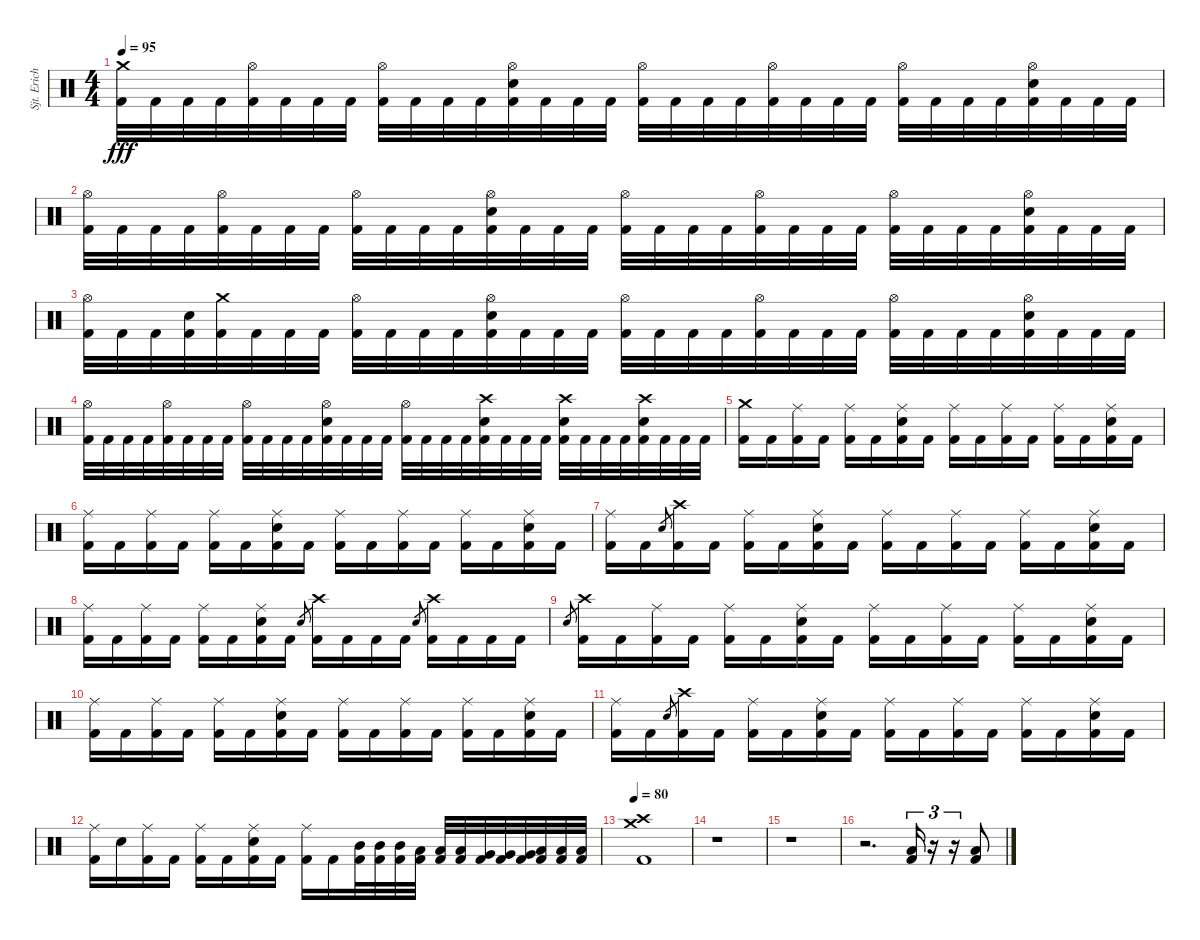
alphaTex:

\track ("Sjt. Erichsen" "Sjt. Erich") {instrument percussion}
\staff {score}
\articulation defaults
\ts (4 4)
\tempo 95
\clef neutral
\ks c
("Crash medium (hit)" "Kick (hit) 2").32{dy fff} "Kick (hit) 2".32 "Kick (hit) 2".32 "Kick (hit) 2".32 ("Hi-Hat (open)" "Kick (hit) 2").32 "Kick (hit) 2".32 "Kick (hit) 2".32 "Kick (hit) 2".32 ("Hi-Hat (open)" "Kick (hit) 2").32 "Kick (hit) 2".32 "Kick (hit) 2".32 "Kick (hit) 2".32 ("Hi-Hat (open)" "Electric Snare (hit)" "Kick (hit) 2").32 "Kick (hit) 2".32 "Kick (hit) 2".32 "Kick (hit) 2".32 ("Hi-Hat (open)" "Kick (hit) 2").32 "Kick (hit) 2".32 "Kick (hit) 2".32 "Kick (hit) 2".32 ("Hi-Hat (open)" "Kick (hit) 2").32 "Kick (hit) 2".32 "Kick (hit) 2".32 "Kick (hit) 2".32 ("Hi-Hat (open)" "Kick (hit) 2").32 "Kick (hit) 2".32 "Kick (hit) 2".32 "Kick (hit) 2".32 ("Hi-Hat (open)" "Electric Snare (hit)" "Kick (hit) 2").32 "Kick (hit) 2".32 "Kick (hit) 2".32 "Kick (hit) 2".32 |
("Hi-Hat (open)" "Kick (hit) 2").32 "Kick (hit) 2".32 "Kick (hit) 2".32 "Kick (hit) 2".32 ("Hi-Hat (open)" "Kick (hit) 2").32 "Kick (hit) 2".32 "Kick (hit) 2".32 "Kick (hit) 2".32 ("Hi-Hat (open)" "Kick (hit) 2").32 "Kick (hit) 2".32 "Kick (hit) 2".32 "Kick (hit) 2".32 ("Hi-Hat (open)" "Electric Snare (hit)" "Kick (hit) 2").32 "Kick (hit) 2".32 "Kick (hit) 2".32 "Kick (hit) 2".32 ("Hi-Hat (open)" "Kick (hit) 2").32 "Kick (hit) 2".32 "Kick (hit) 2".32 "Kick (hit) 2".32 ("Hi-Hat (open)" "Kick (hit) 2").32 "Kick (hit) 2".32 "Kick (hit) 2".32 "Kick (hit) 2".32 ("Hi-Hat (open)" "Kick (hit) 2").32 "Kick (hit) 2".32 "Kick (hit) 2".32 "Kick (hit) 2".32 ("Hi-Hat (open)" "Electric Snare (hit)" "Kick (hit) 2").32 "Kick (hit) 2".32 "Kick (hit) 2".32 "Kick (hit) 2".32 |
("Hi-Hat (open)" "Kick (hit) 2").32 "Kick (hit) 2".32 "Kick (hit) 2".32 ("Electric Snare (hit)" "Kick (hit) 2").32 ("Crash medium (hit)" "Kick (hit) 2").32 "Kick (hit) 2".32 "Kick (hit) 2".32 "Kick (hit) 2".32 ("Hi-Hat (open)" "Kick (hit) 2").32 "Kick (hit) 2".32 "Kick (hit) 2".32 "Kick (hit) 2".32 ("Hi-Hat (open)" "Electric Snare (hit)" "Kick (hit) 2").32 "Kick (hit) 2".32 "Kick (hit) 2".32 "Kick (hit) 2".32 ("Hi-Hat (open)" "Kick (hit) 2").32 "Kick (hit) 2".32 "Kick (hit) 2".32 "Kick (hit) 2".32 ("Hi-Hat (open)" "Kick (hit) 2").32 "Kick (hit) 2".32 "Kick (hit) 2".32 "Kick (hit) 2".32 ("Hi-Hat (open)" "Kick (hit) 2").32 "Kick (hit) 2".32 "Kick (hit) 2".32 "Kick (hit) 2".32 ("Hi-Hat (open)" "Electric Snare (hit)" "Kick (hit) 2").32 "Kick (hit) 2".32 "Kick (hit) 2".32 "Kick (hit) 2".32 |
("Hi-Hat (open)" "Kick (hit) 2").32 "Kick (hit) 2".32 "Kick (hit) 2".32 "Kick (hit) 2".32 ("Hi-Hat (open)" "Kick (hit) 2").32 "Kick (hit) 2".32 "Kick (hit) 2".32 "Kick (hit) 2".32 ("Hi-Hat (open)" "Kick (hit) 2").32 "Kick (hit) 2".32 "Kick (hit) 2".32 "Kick (hit) 2".32 ("Hi-Hat (open)" "Electric Snare (hit)" "Kick (hit) 2").32 "Kick (hit) 2".32 "Kick (hit) 2".32 "Kick (hit) 2".32 ("Hi-Hat (open)" "Kick (hit) 2").32 "Kick (hit) 2".32 "Kick (hit) 2".32 "Kick (hit) 2".32 ("Crash high (hit)" "Electric Snare (hit)" "Kick (hit) 2").32 "Kick (hit) 2".32 "Kick (hit) 2".32 "Kick (hit) 2".32 ("Crash high (hit)" "Electric Snare (hit)" "Kick (hit) 2").32 "Kick (hit) 2".32 "Kick (hit) 2".32 "Kick (hit) 2".32 ("Crash high (hit)" "Electric Snare (hit)" "Kick (hit) 2").32 "Kick (hit) 2".32 "Kick (hit) 2".32 "Kick (hit) 2".32 |
("Crash medium (hit)" "Kick (hit) 2").16 "Kick (hit) 2".16 ("Ride (middle)" "Kick (hit) 2").16 "Kick (hit) 2".16 ("Ride (middle)" "Kick (hit) 2").16 "Kick (hit) 2".16 ("Ride (middle)" "Electric Snare (hit)" "Kick (hit) 2").16 "Kick (hit) 2".16 ("Ride (middle)" "Kick (hit) 2").16 "Kick (hit) 2".16 ("Ride (middle)" "Kick (hit) 2").16 "Kick (hit) 2".16 ("Ride (middle)" "Kick (hit) 2").16 "Kick (hit) 2".16 ("Ride (middle)" "Electric Snare (hit)" "Kick (hit) 2").16 "Kick (hit) 2".16 |
("Ride (middle)" "Kick (hit) 2").16 "Kick (hit) 2".16 ("Ride (middle)" "Kick (hit) 2").16 "Kick (hit) 2".16 ("Ride (middle)" "Kick (hit) 2").16 "Kick (hit) 2".16 ("Ride (middle)" "Electric Snare (hit)" "Kick (hit) 2").16 "Kick (hit) 2".16 ("Ride (middle)" "Kick (hit) 2").16 "Kick (hit) 2".16 ("Ride (middle)" "Kick (hit) 2").16 "Kick (hit) 2".16 ("Ride (middle)" "Kick (hit) 2").16 "Kick (hit) 2".16 ("Ride (middle)" "Electric Snare (hit)" "Kick (hit) 2").16 "Kick (hit) 2".16 |
("Ride (middle)" "Kick (hit) 2").16 "Kick (hit) 2".16 "Electric Snare (hit)".8{gr} ("Crash high (hit)" "Kick (hit) 2").16 "Kick (hit) 2".16 ("Ride (middle)" "Kick (hit) 2").16 "Kick (hit) 2".16 ("Ride (middle)" "Electric Snare (hit)" "Kick (hit) 2").16 "Kick (hit) 2".16 ("Ride (middle)" "Kick (hit) 2").16 "Kick (hit) 2".16 ("Ride (middle)" "Kick (hit) 2").16 "Kick (hit) 2".16 ("Ride (middle)" "Kick (hit) 2").16 "Kick (hit) 2".16 ("Ride (middle)" "Electric Snare (hit)" "Kick (hit) 2").16 "Kick (hit) 2".16 |
("Ride (middle)" "Kick (hit) 2").16 "Kick (hit) 2".16 ("Ride (middle)" "Kick (hit) 2").16 "Kick (hit) 2".16 ("Ride (middle)" "Kick (hit) 2").16 "Kick (hit) 2".16 ("Ride (middle)" "Electric Snare (hit)" "Kick (hit) 2").16 "Kick (hit) 2".16 "Electric Snare (hit)".8{gr} ("Crash high (hit)" "Kick (hit) 2").16 "Kick (hit) 2".16 "Kick (hit) 2".16 "Kick (hit) 2".16 "Electric Snare (hit)".8{gr} ("Crash high (hit)" "Kick (hit) 2").16 "Kick (hit) 2".16 "Kick (hit) 2".16 "Kick (hit) 2".16 |
"Electric Snare (hit)".8{gr} ("Crash high (hit)" "Kick (hit) 2").16 "Kick (hit) 2".16 ("Ride (middle)" "Kick (hit) 2").16 "Kick (hit) 2".16 ("Ride (middle)" "Kick (hit) 2").16 "Kick (hit) 2".16 ("Ride (middle)" "Electric Snare (hit)" "Kick (hit) 2").16 "Kick (hit) 2".16 ("Ride (middle)" "Kick (hit) 2").16 "Kick (hit) 2".16 ("Ride (middle)" "Kick (hit) 2").16 "Kick (hit) 2".16 ("Ride (middle)" "Kick (hit) 2").16 "Kick (hit) 2".16 ("Ride (middle)" "Electric Snare (hit)" "Kick (hit) 2").16 "Kick (hit) 2".16 |
("Ride (middle)" "Kick (hit) 2").16 "Kick (hit) 2".16 ("Ride (middle)" "Kick (hit) 2").16 "Kick (hit) 2".16 ("Ride (middle)" "Kick (hit) 2").16 "Kick (hit) 2".16 ("Ride (middle)" "Electric Snare (hit)" "Kick (hit) 2").16 "Kick (hit) 2".16 ("Ride (middle)" "Kick (hit) 2").16 "Kick (hit) 2".16 ("Ride (middle)" "Kick (hit) 2").16 "Kick (hit) 2".16 ("Ride (middle)" "Kick (hit) 2").16 "Kick (hit) 2".16 ("Ride (middle)" "Electric Snare (hit)" "Kick (hit) 2").16 "Kick (hit) 2".16 |
("Ride (middle)" "Kick (hit) 2").16 "Kick (hit) 2".16 "Electric Snare (hit)".8{gr} ("Crash high (hit)" "Kick (hit) 2").16 "Kick (hit) 2".16 ("Ride (middle)" "Kick (hit) 2").16 "Kick (hit) 2".16 ("Ride (middle)" "Electric Snare (hit)" "Kick (hit) 2").16 "Kick (hit) 2".16 ("Ride (middle)" "Kick (hit) 2").16 "Kick (hit) 2".16 ("Ride (middle)" "Kick (hit) 2").16 "Kick (hit) 2".16 ("Ride (middle)" "Kick (hit) 2").16 "Kick (hit) 2".16 ("Ride (middle)" "Electric Snare (hit)" "Kick (hit) 2").16 "Kick (hit) 2".16 |
("Ride (middle)" "Kick (hit) 2").16 "Snare (hit)".16 ("Ride (middle)" "Kick (hit) 2").16 "Kick (hit) 2".16 ("Ride (middle)" "Kick (hit) 2").16 "Kick (hit) 2".16 ("Ride (middle)" "Electric Snare (hit)" "Kick (hit) 2").16 "Kick (hit) 2".16 ("Ride (middle)" "Kick (hit) 2").16 "Kick (hit) 2".16 ("Mid Tom (hit)" "Kick (hit) 2").32 ("Mid Tom (hit)" "Kick (hit) 2").32 ("Mid Tom (hit)" "Kick (hit) 2").32 ("Low Tom (hit)" "Kick (hit) 2").32 ("Low Tom (hit)" "Kick (hit) 2").32 ("Low Tom (hit)" "Kick (hit) 2").32 ("Very Low Tom (hit)" "Kick (hit) 2").32 ("Very Low Tom (hit)" "Kick (hit) 2").32 ("Very Low Tom (hit)" "Kick (hit) 2").32 ("Low Floor Tom (hit)" "Kick (hit) 2").32 ("Low Floor Tom (hit)" "Kick (hit) 2").32 ("Low Floor Tom (hit)" "Kick (hit) 2").32 |
\tempo 80
("Crash medium (hit)" "Crash high (hit)" "Kick (hit) 2").1 |
r.1 |
r.1 |
r.2{d} ("Low Floor Tom (hit)" "Kick (hit) 2").16{tu (3 2)} r.16{tu (3 2)} r.16{tu (3 2)} ("Low Floor Tom (hit)" "Kick (hit) 2").8
